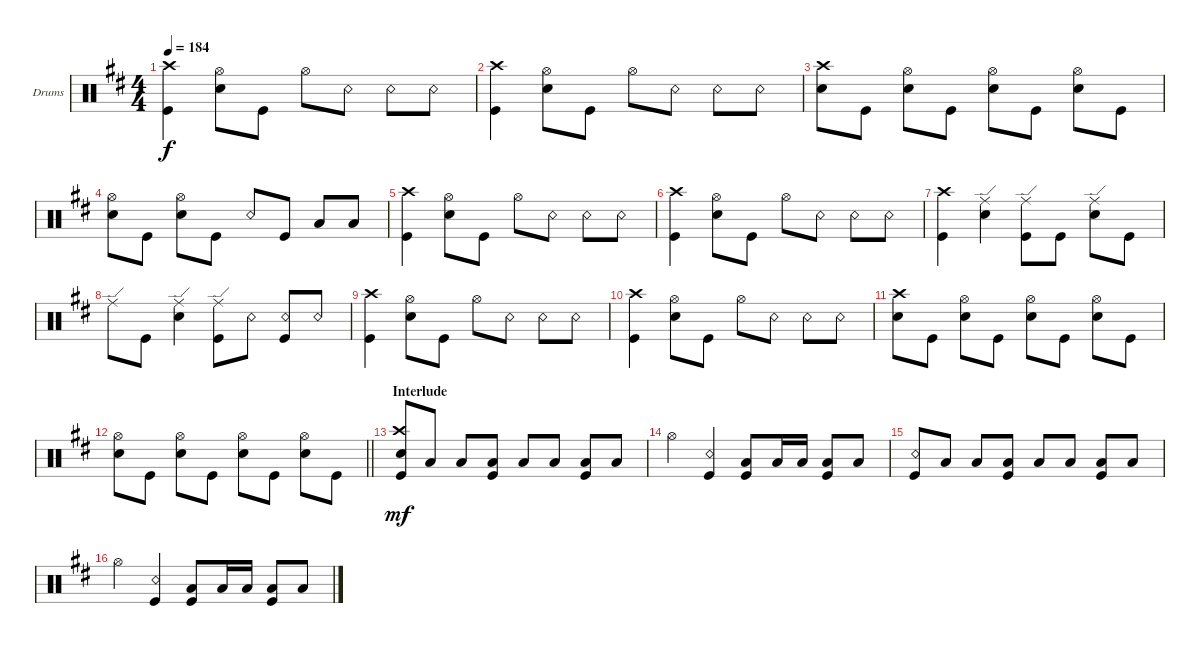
\defaultSystemsLayout 4
\bracketExtendMode groupsimilarinstruments
\firstSystemTrackNameOrientation horizontal
\otherSystemsTrackNameOrientation horizontal
\track ("Drums" "Drums") {instrument percussion}
\staff {score}
\articulation defaults
\ts (4 4)
\tempo 184
\clef neutral
\ks d
("Kick (hit)" "Crash high (hit)").4{dy f} ("Hi-Hat (open)" "Snare (hit) 2").8 "Kick (hit)".8 "Hi-Hat (open)".8 "Snare (rim shot)".8 "Snare (rim shot)".8 "Snare (rim shot)".8 |
("Kick (hit)" "Crash high (hit)").4 ("Hi-Hat (open)" "Snare (hit) 2").8 "Kick (hit)".8 "Hi-Hat (open)".8 "Snare (rim shot)".8 "Snare (rim shot)".8 "Snare (rim shot)".8 |
("Crash high (hit)" "Snare (hit) 2").8 "Kick (hit)".8 ("Snare (hit) 2" "Hi-Hat (open)").8 "Kick (hit)".8 ("Snare (hit) 2" "Hi-Hat (open)").8 "Kick (hit)".8 ("Snare (hit) 2" "Hi-Hat (open)").8 "Kick (hit)".8 |
("Snare (hit) 2" "Hi-Hat (open)").8 "Kick (hit)".8 ("Snare (hit) 2" "Hi-Hat (open)").8 "Kick (hit)".8 "Snare (rim shot)".8 "Kick (hit)".8 "Low Tom (hit)".8 "Low Tom (hit)".8 |
("Kick (hit)" "Crash high (hit)").4 ("Hi-Hat (open)" "Snare (hit) 2").8 "Kick (hit)".8 "Hi-Hat (open)".8 "Snare (rim shot)".8 "Snare (rim shot)".8 "Snare (rim shot)".8 |
("Kick (hit)" "Crash high (hit)").4 ("Hi-Hat (open)" "Snare (hit) 2").8 "Kick (hit)".8 "Hi-Hat (open)".8 "Snare (rim shot)".8 "Snare (rim shot)".8 "Snare (rim shot)".8 |
("Kick (hit)" "Crash high (hit)").4 ("Ride (edge)" "Snare (hit) 2").4 ("Kick (hit)" "Ride (edge)").8 "Kick (hit)".8 ("Snare (hit) 2" "Ride (edge)").8 "Kick (hit)".8 |
"Ride (edge)".8 "Kick (hit)".8 ("Snare (hit) 2" "Ride (edge)").4 ("Kick (hit)" "Ride (edge)").8 "Snare (rim shot)".8 ("Snare (rim shot)" "Kick (hit)").8 "Snare (rim shot)".8 |
("Kick (hit)" "Crash high (hit)").4 ("Hi-Hat (open)" "Snare (hit) 2").8 "Kick (hit)".8 "Hi-Hat (open)".8 "Snare (rim shot)".8 "Snare (rim shot)".8 "Snare (rim shot)".8 |
("Kick (hit)" "Crash high (hit)").4 ("Hi-Hat (open)" "Snare (hit) 2").8 "Kick (hit)".8 "Hi-Hat (open)".8 "Snare (rim shot)".8 "Snare (rim shot)".8 "Snare (rim shot)".8 |
("Crash high (hit)" "Snare (hit) 2").8 "Kick (hit)".8 ("Snare (hit) 2" "Hi-Hat (open)").8 "Kick (hit)".8 ("Snare (hit) 2" "Hi-Hat (open)").8 "Kick (hit)".8 ("Snare (hit) 2" "Hi-Hat (open)").8 "Kick (hit)".8 |
\barLineRight lightlight
("Snare (hit) 2" "Hi-Hat (open)").8 "Kick (hit)".8 ("Snare (hit) 2" "Hi-Hat (open)").8 "Kick (hit)".8 ("Snare (hit) 2" "Hi-Hat (open)").8 "Kick (hit)".8 ("Snare (hit) 2" "Hi-Hat (open)").8 "Kick (hit)".8 |
\section ("" "Interlude")
("Kick (hit)" "Crash high (hit)" "Snare (hit) 2").8{dy mf} "Low Tom (hit)".8 "Low Tom (hit)".8 ("Low Tom (hit)" "Kick (hit)").8 "Low Tom (hit)".8 "Low Tom (hit)".8 ("Low Tom (hit)" "Kick (hit)").8 "Low Tom (hit)".8 |
"Hi-Hat (open)".4 ("Kick (hit)" "Snare (rim shot)").4 ("Low Tom (hit)" "Kick (hit)").8 "Low Tom (hit)".16 "Low Tom (hit)".16 ("Low Tom (hit)" "Kick (hit)").8 "Low Tom (hit)".8 |
("Kick (hit)" "Snare (rim shot)").8 "Low Tom (hit)".8 "Low Tom (hit)".8 ("Low Tom (hit)" "Kick (hit)").8 "Low Tom (hit)".8 "Low Tom (hit)".8 ("Low Tom (hit)" "Kick (hit)").8 "Low Tom (hit)".8 |
"Hi-Hat (open)".4 ("Kick (hit)" "Snare (rim shot)").4 ("Low Tom (hit)" "Kick (hit)").8 "Low Tom (hit)".16 "Low Tom (hit)".16 ("Low Tom (hit)" "Kick (hit)").8 "Low Tom (hit)".8
